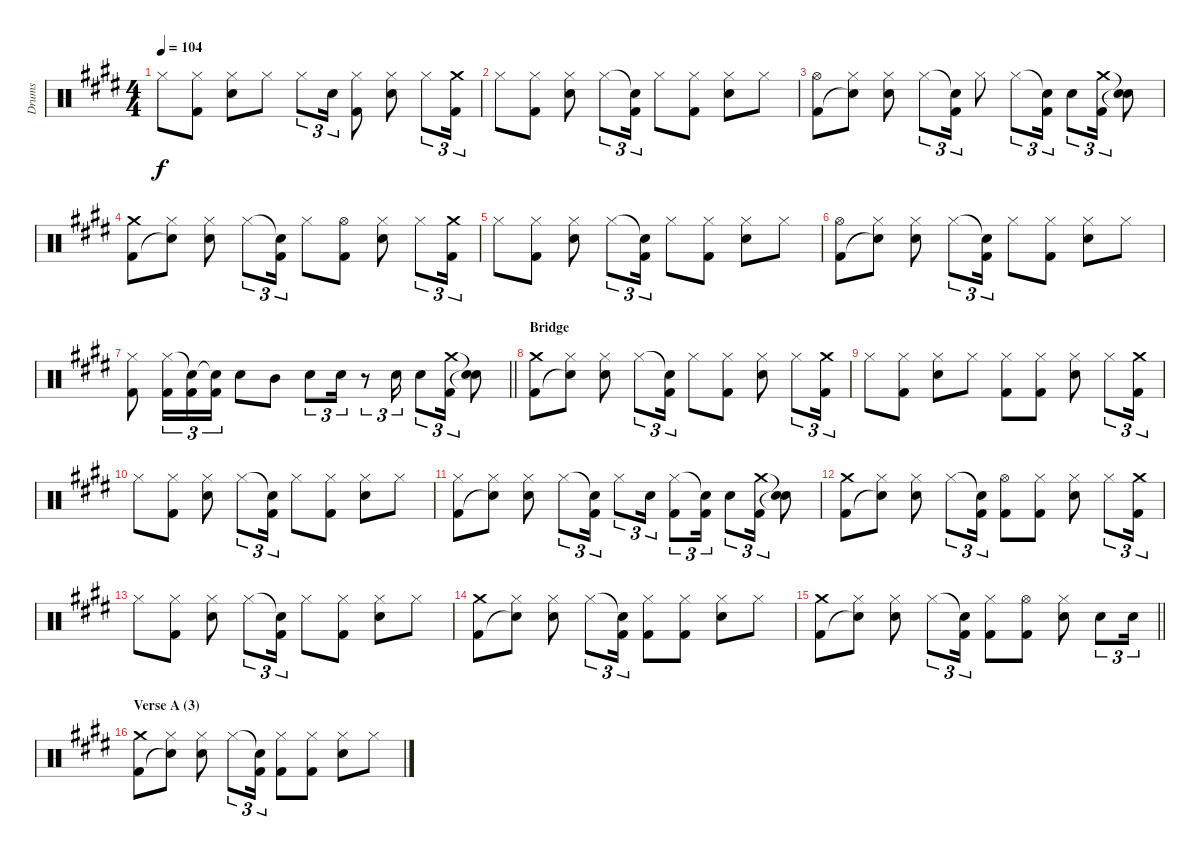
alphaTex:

\track ("Drums" "Drums") {instrument percussion}
\staff {score}
\articulation defaults
\ts (4 4)
\tempo 104
\clef neutral
\ks c#minor "Hi-Hat (closed)".8{dy f}
("Hi-Hat (closed)" "Kick (hit) 2").8 ("Hi-Hat (closed)" "Electric Snare (hit)").8 "Hi-Hat (closed)".8 "Hi-Hat (closed)".8{tu (3 2)} "Electric Snare (hit)".16{tu (3 2)} ("Hi-Hat (closed)" "Kick (hit) 2").8 ("Hi-Hat (closed)" "Electric Snare (hit)").8 "Hi-Hat (closed)".8{tu (3 2)} ("Crash medium (hit)" "Kick (hit) 2").16{tu (3 2)} |
"Hi-Hat (closed)".8 ("Hi-Hat (closed)" "Kick (hit) 2").8 ("Hi-Hat (closed)" "Electric Snare (hit)").8 "Hi-Hat (closed)".8{tu (3 2)} ("Snare (hit)"{t} "Kick (hit) 2").16{tu (3 2)} "Hi-Hat (closed)".8 ("Hi-Hat (closed)" "Kick (hit) 2").8 ("Hi-Hat (closed)" "Electric Snare (hit)").8 "Hi-Hat (closed)".8 |
("Hi-Hat (open)" "Kick (hit) 2").8 ("Hi-Hat (closed)" "Snare (hit)"{t}).8 ("Hi-Hat (closed)" "Electric Snare (hit)").8 "Hi-Hat (closed)".8{tu (3 2)} ("Snare (hit)"{t} "Kick (hit) 2").16{tu (3 2)} "Hi-Hat (closed)".8 "Hi-Hat (closed)".8{tu (3 2)} ("Snare (hit)"{t} "Kick (hit) 2").16{tu (3 2)} "Electric Snare (hit)".8{tu (3 2)} ("Crash medium (hit)" "Kick (hit) 2").16{tu (3 2)} ("Snare (hit)"{t} "Snare (hit)"{t}).8 |
("Crash medium (hit)" "Kick (hit) 2").8 ("Hi-Hat (closed)" "Snare (hit)"{t}).8 ("Hi-Hat (closed)" "Electric Snare (hit)").8 "Hi-Hat (closed)".8{tu (3 2)} ("Snare (hit)"{t} "Kick (hit) 2").16{tu (3 2)} "Hi-Hat (closed)".8 ("Hi-Hat (open)" "Kick (hit) 2").8 ("Hi-Hat (closed)" "Electric Snare (hit)").8 "Hi-Hat (closed)".8{tu (3 2)} ("Crash medium (hit)" "Kick (hit) 2").16{tu (3 2)} |
"Hi-Hat (closed)".8 ("Hi-Hat (closed)" "Kick (hit) 2").8 ("Hi-Hat (closed)" "Electric Snare (hit)").8 "Hi-Hat (closed)".8{tu (3 2)} ("Snare (hit)"{t} "Kick (hit) 2").16{tu (3 2)} "Hi-Hat (closed)".8 ("Hi-Hat (closed)" "Kick (hit) 2").8 ("Hi-Hat (closed)" "Electric Snare (hit)").8 "Hi-Hat (closed)".8 |
("Hi-Hat (open)" "Kick (hit) 2").8 ("Hi-Hat (closed)" "Snare (hit)"{t}).8 ("Hi-Hat (closed)" "Electric Snare (hit)").8 "Hi-Hat (closed)".8{tu (3 2)} ("Snare (hit)"{t} "Kick (hit) 2").16{tu (3 2)} "Hi-Hat (closed)".8 ("Hi-Hat (closed)" "Kick (hit) 2").8 ("Hi-Hat (closed)" "Electric Snare (hit)").8 "Hi-Hat (closed)".8 |
\barLineRight lightlight
("Hi-Hat (closed)" "Kick (hit) 2").8 ("Hi-Hat (closed)" "Kick (hit) 2").16{tu (3 2)} ("Snare (hit)"{t} "Kick (hit) 2").16{tu (3 2)} ("Snare (hit)"{t} "Kick (hit) 2").16{tu (3 2)} "Electric Snare (hit)".8 "Mid Tom (hit)".8 "Electric Snare (hit)".8{tu (3 2)} "Electric Snare (hit)".16{tu (3 2)} r.8{tu (3 2)} "Electric Snare (hit)".16{tu (3 2)} "Electric Snare (hit)".8{tu (3 2)} ("Crash medium (hit)" "Kick (hit) 2").16{tu (3 2)} ("Snare (hit)"{t} "Snare (hit)"{t}).8 |
\section ("" "Bridge")
("Crash medium (hit)" "Kick (hit) 2").8 ("Hi-Hat (closed)" "Snare (hit)"{t}).8 ("Hi-Hat (closed)" "Electric Snare (hit)").8 "Hi-Hat (closed)".8{tu (3 2)} ("Snare (hit)"{t} "Kick (hit) 2").16{tu (3 2)} "Hi-Hat (closed)".8 ("Hi-Hat (closed)" "Kick (hit) 2").8 ("Hi-Hat (closed)" "Electric Snare (hit)").8 "Hi-Hat (closed)".8{tu (3 2)} ("Crash medium (hit)" "Kick (hit) 2").16{tu (3 2)} |
"Hi-Hat (closed)".8 ("Hi-Hat (closed)" "Kick (hit) 2").8 ("Hi-Hat (closed)" "Electric Snare (hit)").8 "Hi-Hat (closed)".8 ("Hi-Hat (closed)" "Kick (hit) 2").8 ("Hi-Hat (closed)" "Kick (hit) 2").8 ("Hi-Hat (closed)" "Electric Snare (hit)").8 "Hi-Hat (closed)".8{tu (3 2)} ("Crash medium (hit)" "Kick (hit) 2").16{tu (3 2)} |
"Hi-Hat (closed)".8 ("Hi-Hat (closed)" "Kick (hit) 2").8 ("Hi-Hat (closed)" "Electric Snare (hit)").8 "Hi-Hat (closed)".8{tu (3 2)} ("Snare (hit)"{t} "Kick (hit) 2").16{tu (3 2)} "Hi-Hat (closed)".8 ("Hi-Hat (closed)" "Kick (hit) 2").8 ("Hi-Hat (closed)" "Electric Snare (hit)").8 "Hi-Hat (closed)".8 |
("Hi-Hat (closed)" "Kick (hit) 2").8 ("Hi-Hat (closed)" "Snare (hit)"{t}).8 ("Hi-Hat (closed)" "Electric Snare (hit)").8 "Hi-Hat (closed)".8{tu (3 2)} ("Snare (hit)"{t} "Kick (hit) 2").16{tu (3 2)} "Hi-Hat (closed)".8{tu (3 2)} "Electric Snare (hit)".16{tu (3 2)} ("Hi-Hat (closed)" "Kick (hit) 2").8{tu (3 2)} ("Snare (hit)"{t} "Kick (hit) 2").16{tu (3 2)} "Electric Snare (hit)".8{tu (3 2)} ("Crash medium (hit)" "Kick (hit) 2").16{tu (3 2)} ("Snare (hit)"{t} "Snare (hit)"{t}).8 |
("Crash medium (hit)" "Kick (hit) 2").8 ("Hi-Hat (closed)" "Snare (hit)"{t}).8 ("Hi-Hat (closed)" "Electric Snare (hit)").8 "Hi-Hat (closed)".8{tu (3 2)} ("Snare (hit)"{t} "Kick (hit) 2").16{tu (3 2)} ("Hi-Hat (open)" "Kick (hit) 2").8 ("Hi-Hat (closed)" "Kick (hit) 2").8 ("Hi-Hat (closed)" "Electric Snare (hit)").8 "Hi-Hat (closed)".8{tu (3 2)} ("Crash medium (hit)" "Kick (hit) 2").16{tu (3 2)} |
"Hi-Hat (closed)".8 ("Hi-Hat (closed)" "Kick (hit) 2").8 ("Hi-Hat (closed)" "Electric Snare (hit)").8 "Hi-Hat (closed)".8{tu (3 2)} ("Snare (hit)"{t} "Kick (hit) 2").16{tu (3 2)} "Hi-Hat (closed)".8 ("Hi-Hat (closed)" "Kick (hit) 2").8 ("Hi-Hat (closed)" "Electric Snare (hit)").8 "Hi-Hat (closed)".8 |
("Crash medium (hit)" "Kick (hit) 2").8 ("Hi-Hat (closed)" "Snare (hit)"{t}).8 ("Hi-Hat (closed)" "Electric Snare (hit)").8 "Hi-Hat (closed)".8{tu (3 2)} ("Snare (hit)"{t} "Kick (hit) 2").16{tu (3 2)} ("Hi-Hat (closed)" "Kick (hit) 2").8 ("Hi-Hat (closed)" "Kick (hit) 2").8 ("Hi-Hat (closed)" "Electric Snare (hit)").8 "Hi-Hat (closed)".8 |
\barLineRight lightlight
("Crash medium (hit)" "Kick (hit) 2").8 ("Hi-Hat (closed)" "Snare (hit)"{t}).8 ("Hi-Hat (closed)" "Electric Snare (hit)").8 "Hi-Hat (closed)".8{tu (3 2)} ("Snare (hit)"{t} "Kick (hit) 2").16{tu (3 2)} ("Hi-Hat (closed)" "Kick (hit) 2").8 ("Hi-Hat (open)" "Kick (hit) 2").8 ("Hi-Hat (closed)" "Electric Snare (hit)").8 "Electric Snare (hit)".8{tu (3 2)} "Electric Snare (hit)".16{tu (3 2)} |
\section ("" "Verse A (3)")
("Crash medium (hit)" "Kick (hit) 2").8 ("Hi-Hat (closed)" "Snare (hit)"{t}).8 ("Hi-Hat (closed)" "Electric Snare (hit)").8 "Hi-Hat (closed)".8{tu (3 2)} ("Snare (hit)"{t} "Kick (hit) 2").16{tu (3 2)} ("Hi-Hat (closed)" "Kick (hit) 2").8 ("Hi-Hat (closed)" "Kick (hit) 2").8 ("Hi-Hat (closed)" "Electric Snare (hit)").8 "Hi-Hat (closed)".8
